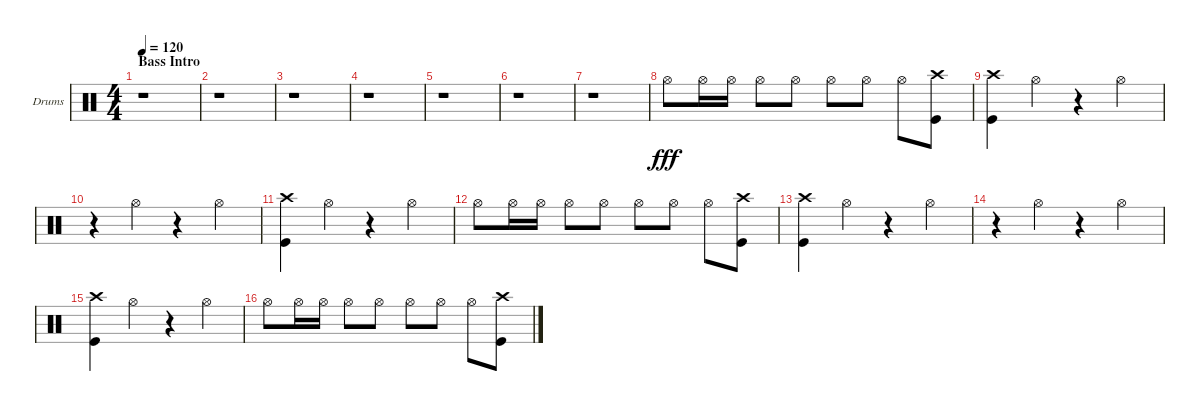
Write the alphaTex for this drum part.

\bracketExtendMode groupsimilarinstruments
\firstSystemTrackNameOrientation horizontal
\otherSystemsTrackNameOrientation horizontal
\track ("Drumkit" "Drums") {instrument percussion}
\staff {score}
\articulation defaults
\ts (4 4)
\section ("" "Bass Intro")
\tempo 120
\clef neutral
\ks c
r.1{dy fff} |
r.1 |
r.1 |
r.1 |
r.1 |
r.1 |
r.1 |
"Hi-Hat (open)".8 "Hi-Hat (open)".16 "Hi-Hat (open)".16 "Hi-Hat (open)".8 "Hi-Hat (open)".8 "Hi-Hat (open)".8 "Hi-Hat (open)".8 "Hi-Hat (open)".8 ("Kick (hit)" "Crash high (hit)").8 |
("Kick (hit)" "Crash high (hit)").4 "Hi-Hat (open)".4 r.4 "Hi-Hat (open)".4 |
r.4 "Hi-Hat (open)".4 r.4 "Hi-Hat (open)".4 |
("Kick (hit)" "Crash high (hit)").4 "Hi-Hat (open)".4 r.4 "Hi-Hat (open)".4 |
"Hi-Hat (open)".8 "Hi-Hat (open)".16 "Hi-Hat (open)".16 "Hi-Hat (open)".8 "Hi-Hat (open)".8 "Hi-Hat (open)".8 "Hi-Hat (open)".8 "Hi-Hat (open)".8 ("Kick (hit)" "Crash high (hit)").8 |
("Kick (hit)" "Crash high (hit)").4 "Hi-Hat (open)".4 r.4 "Hi-Hat (open)".4 |
r.4 "Hi-Hat (open)".4 r.4 "Hi-Hat (open)".4 |
("Kick (hit)" "Crash high (hit)").4 "Hi-Hat (open)".4 r.4 "Hi-Hat (open)".4 |
"Hi-Hat (open)".8 "Hi-Hat (open)".16 "Hi-Hat (open)".16 "Hi-Hat (open)".8 "Hi-Hat (open)".8 "Hi-Hat (open)".8 "Hi-Hat (open)".8 "Hi-Hat (open)".8 ("Kick (hit)" "Crash high (hit)").8
